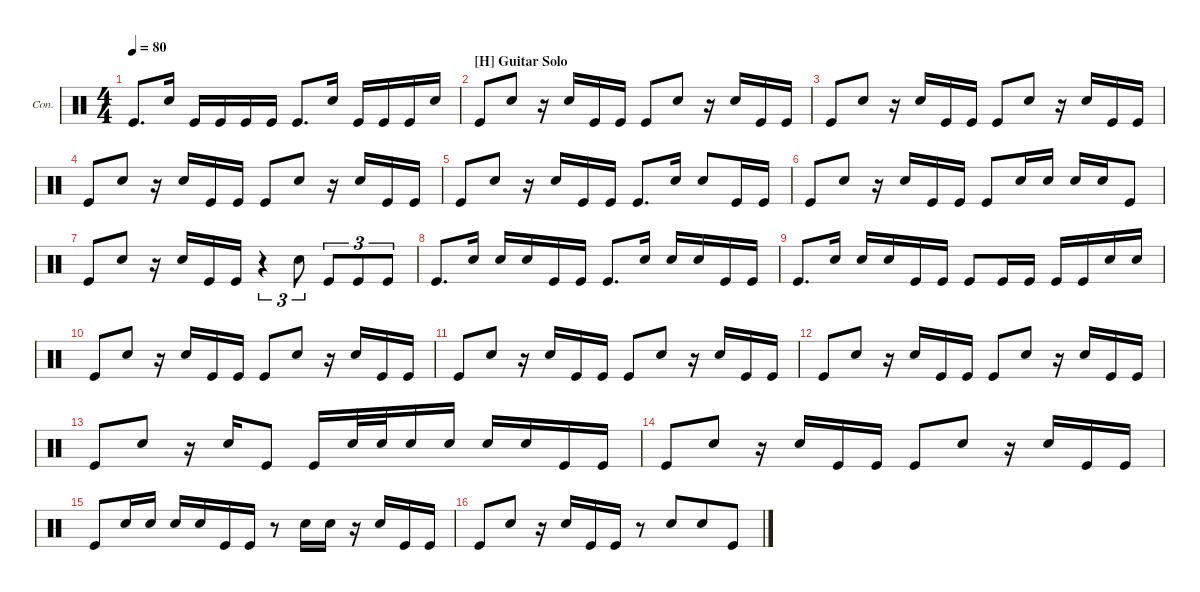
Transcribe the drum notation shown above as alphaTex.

\defaultSystemsLayout 4
\hideDynamics
\bracketExtendMode groupsimilarinstruments
\firstSystemTrackNameOrientation horizontal
\otherSystemsTrackNameOrientation horizontal
\track ("Congas" "Con.") {multiBarRest instrument percussion}
\staff {score}
\articulation defaults
\ts (4 4)
\tempo 80
\clef neutral
\ks c "Kick (hit)".8{d dy mf} "Snare (hit) 2".16 "Kick (hit)".16 "Kick (hit)".16 "Kick (hit)".16 "Kick (hit)".16 "Kick (hit)".8{d} "Snare (hit) 2".16 "Kick (hit)".16 "Kick (hit)".16 "Kick (hit)".16 "Snare (hit) 2".16
|
\section ("H" "Guitar Solo")
"Kick (hit)".8 "Snare (hit) 2".8 r.16 "Snare (hit) 2".16 "Kick (hit)".16 "Kick (hit)".16 "Kick (hit)".8 "Snare (hit) 2".8 r.16 "Snare (hit) 2".16 "Kick (hit)".16 "Kick (hit)".16 |
"Kick (hit)".8 "Snare (hit) 2".8 r.16 "Snare (hit) 2".16 "Kick (hit)".16 "Kick (hit)".16 "Kick (hit)".8 "Snare (hit) 2".8 r.16 "Snare (hit) 2".16 "Kick (hit)".16 "Kick (hit)".16 |
"Kick (hit)".8 "Snare (hit) 2".8 r.16 "Snare (hit) 2".16 "Kick (hit)".16 "Kick (hit)".16 "Kick (hit)".8 "Snare (hit) 2".8 r.16 "Snare (hit) 2".16 "Kick (hit)".16 "Kick (hit)".16 |
"Kick (hit)".8 "Snare (hit) 2".8 r.16 "Snare (hit) 2".16 "Kick (hit)".16 "Kick (hit)".16 "Kick (hit)".8{d} "Snare (hit) 2".16 "Snare (hit) 2".8 "Kick (hit)".16 "Kick (hit)".16 |
"Kick (hit)".8 "Snare (hit) 2".8 r.16 "Snare (hit) 2".16 "Kick (hit)".16 "Kick (hit)".16 "Kick (hit)".8 "Snare (hit) 2".16 "Snare (hit) 2".16 "Snare (hit) 2".16 "Snare (hit) 2".16 "Kick (hit)".8 |
"Kick (hit)".8 "Snare (hit) 2".8 r.16 "Snare (hit) 2".16 "Kick (hit)".16 "Kick (hit)".16 r.4{tu (3 2)} "Snare (hit) 2".8{tu (3 2)} "Kick (hit)".8{tu (3 2)} "Kick (hit)".8{tu (3 2)} "Kick (hit)".8{tu (3 2)} |
"Kick (hit)".8{d} "Snare (hit) 2".16 "Snare (hit) 2".16 "Snare (hit) 2".16 "Kick (hit)".16 "Kick (hit)".16 "Kick (hit)".8{d} "Snare (hit) 2".16 "Snare (hit) 2".16 "Snare (hit) 2".16 "Kick (hit)".16 "Kick (hit)".16 |
"Kick (hit)".8{d} "Snare (hit) 2".16 "Snare (hit) 2".16 "Snare (hit) 2".16 "Kick (hit)".16 "Kick (hit)".16 "Kick (hit)".8 "Kick (hit)".16 "Kick (hit)".16 "Kick (hit)".16 "Kick (hit)".16 "Snare (hit) 2".16 "Snare (hit) 2".16 |
"Kick (hit)".8 "Snare (hit) 2".8 r.16 "Snare (hit) 2".16 "Kick (hit)".16 "Kick (hit)".16 "Kick (hit)".8 "Snare (hit) 2".8 r.16 "Snare (hit) 2".16 "Kick (hit)".16 "Kick (hit)".16 |
"Kick (hit)".8 "Snare (hit) 2".8 r.16 "Snare (hit) 2".16 "Kick (hit)".16 "Kick (hit)".16 "Kick (hit)".8 "Snare (hit) 2".8 r.16 "Snare (hit) 2".16 "Kick (hit)".16 "Kick (hit)".16 |
"Kick (hit)".8 "Snare (hit) 2".8 r.16 "Snare (hit) 2".16 "Kick (hit)".16 "Kick (hit)".16 "Kick (hit)".8 "Snare (hit) 2".8 r.16 "Snare (hit) 2".16 "Kick (hit)".16 "Kick (hit)".16 |
"Kick (hit)".8 "Snare (hit) 2".8 r.16 "Snare (hit) 2".16 "Kick (hit)".8 "Kick (hit)".16 "Snare (hit) 2".32 "Snare (hit) 2".32 "Snare (hit) 2".16 "Snare (hit) 2".16 "Snare (hit) 2".16 "Snare (hit) 2".16 "Kick (hit)".16 "Kick (hit)".16 |
"Kick (hit)".8 "Snare (hit) 2".8 r.16 "Snare (hit) 2".16 "Kick (hit)".16 "Kick (hit)".16 "Kick (hit)".8 "Snare (hit) 2".8 r.16 "Snare (hit) 2".16 "Kick (hit)".16 "Kick (hit)".16 |
"Kick (hit)".8 "Snare (hit) 2".16 "Snare (hit) 2".16 "Snare (hit) 2".16 "Snare (hit) 2".16 "Kick (hit)".16 "Kick (hit)".16 r.8 "Snare (hit) 2".16 "Snare (hit) 2".16 r.16 "Snare (hit) 2".16 "Kick (hit)".16 "Kick (hit)".16 |
"Kick (hit)".8 "Snare (hit) 2".8 r.16 "Snare (hit) 2".16 "Kick (hit)".16 "Kick (hit)".16 r.8 "Snare (hit) 2".8{beam merge} "Snare (hit) 2".8{beam merge} "Kick (hit)".8
